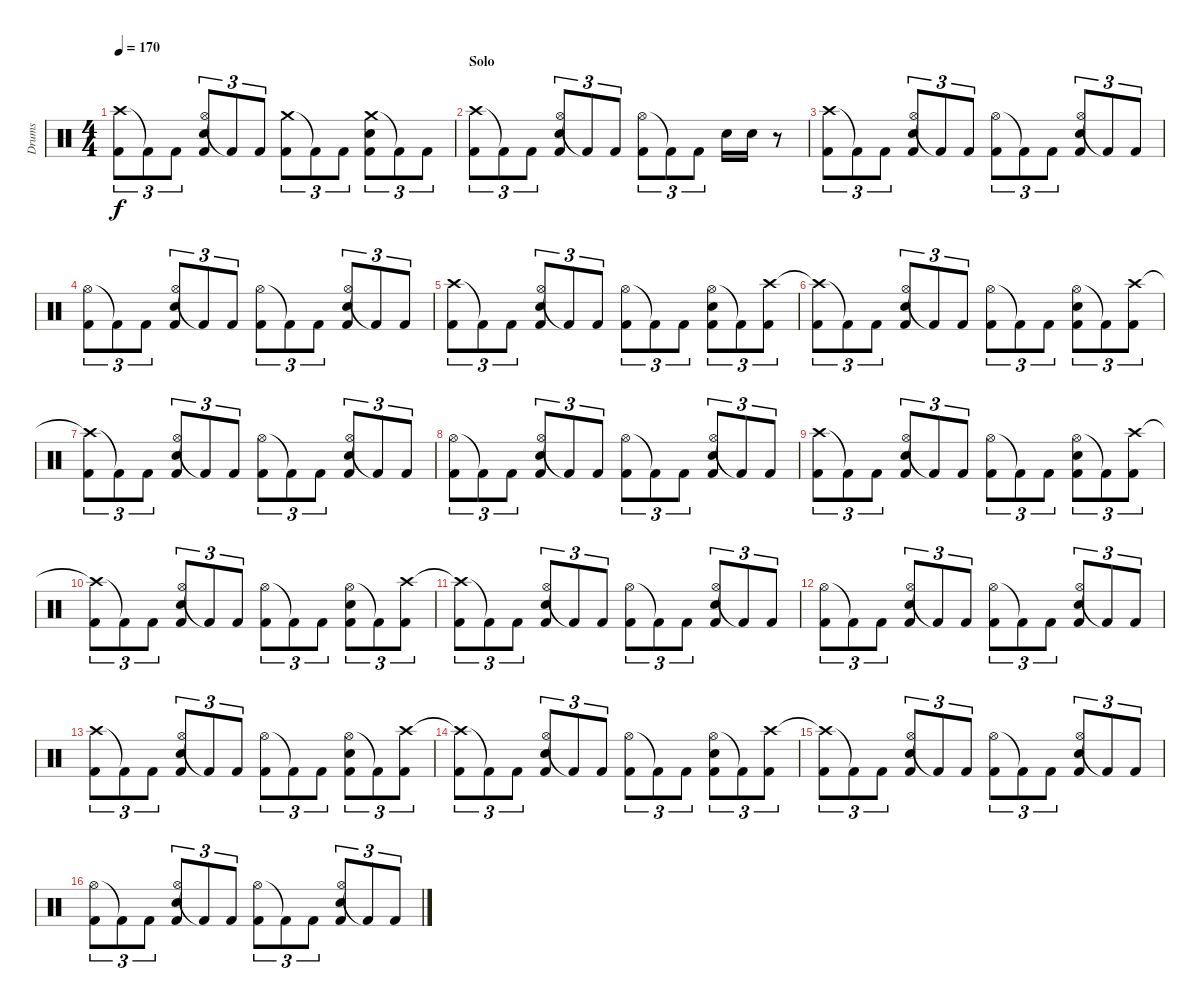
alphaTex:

\track ("Drums" "Drums") {instrument percussion}
\staff {score}
\articulation defaults
\ts (4 4)
\tempo 170
\clef neutral
\ks c
("Crash high (hit)" "Kick (hit) 2").8{tu (3 2) dy f} "Kick (hit) 2"{t}.8{tu (3 2)} "Kick (hit) 2".8{tu (3 2)} ("Hi-Hat (open)" "Snare (hit) 2" "Kick (hit) 2").8{tu (3 2)} "Kick (hit) 2"{t}.8{tu (3 2)} "Kick (hit) 2".8{tu (3 2)} ("Crash medium (hit)" "Kick (hit) 2").8{tu (3 2)} "Kick (hit) 2"{t}.8{tu (3 2)} "Kick (hit) 2".8{tu (3 2)} ("Crash medium (hit)" "Snare (hit) 2" "Kick (hit) 2").8{tu (3 2)} "Kick (hit) 2"{t}.8{tu (3 2)} "Kick (hit) 2".8{tu (3 2)} |
\section ("" "Solo")
("Crash high (hit)" "Kick (hit) 2").8{tu (3 2)} "Kick (hit) 2"{t}.8{tu (3 2)} "Kick (hit) 2".8{tu (3 2)} ("Hi-Hat (open)" "Snare (hit) 2" "Kick (hit) 2").8{tu (3 2)} "Kick (hit) 2"{t}.8{tu (3 2)} "Kick (hit) 2".8{tu (3 2)} ("Hi-Hat (open)" "Kick (hit) 2").8{tu (3 2)} "Kick (hit) 2"{t}.8{tu (3 2)} "Kick (hit) 2".8{tu (3 2)} "Snare (hit) 2".16 "Snare (hit) 2".16 r.8 |
("Crash high (hit)" "Kick (hit) 2").8{tu (3 2)} "Kick (hit) 2"{t}.8{tu (3 2)} "Kick (hit) 2".8{tu (3 2)} ("Hi-Hat (open)" "Snare (hit) 2" "Kick (hit) 2").8{tu (3 2)} "Kick (hit) 2"{t}.8{tu (3 2)} "Kick (hit) 2".8{tu (3 2)} ("Hi-Hat (open)" "Kick (hit) 2").8{tu (3 2)} "Kick (hit) 2"{t}.8{tu (3 2)} "Kick (hit) 2".8{tu (3 2)} ("Hi-Hat (open)" "Snare (hit) 2" "Kick (hit) 2").8{tu (3 2)} "Kick (hit) 2"{t}.8{tu (3 2)} "Kick (hit) 2".8{tu (3 2)} |
("Hi-Hat (open)" "Kick (hit) 2").8{tu (3 2)} "Kick (hit) 2"{t}.8{tu (3 2)} "Kick (hit) 2".8{tu (3 2)} ("Hi-Hat (open)" "Snare (hit) 2" "Kick (hit) 2").8{tu (3 2)} "Kick (hit) 2"{t}.8{tu (3 2)} "Kick (hit) 2".8{tu (3 2)} ("Hi-Hat (open)" "Kick (hit) 2").8{tu (3 2)} "Kick (hit) 2"{t}.8{tu (3 2)} "Kick (hit) 2".8{tu (3 2)} ("Hi-Hat (open)" "Snare (hit) 2" "Kick (hit) 2").8{tu (3 2)} "Kick (hit) 2"{t}.8{tu (3 2)} "Kick (hit) 2".8{tu (3 2)} |
("Crash high (hit)" "Kick (hit) 2").8{tu (3 2)} "Kick (hit) 2"{t}.8{tu (3 2)} "Kick (hit) 2".8{tu (3 2)} ("Hi-Hat (open)" "Snare (hit) 2" "Kick (hit) 2").8{tu (3 2)} "Kick (hit) 2"{t}.8{tu (3 2)} "Kick (hit) 2".8{tu (3 2)} ("Hi-Hat (open)" "Kick (hit) 2").8{tu (3 2)} "Kick (hit) 2"{t}.8{tu (3 2)} "Kick (hit) 2".8{tu (3 2)} ("Hi-Hat (open)" "Snare (hit) 2" "Kick (hit) 2").8{tu (3 2)} "Kick (hit) 2"{t}.8{tu (3 2)} ("Crash high (hit)" "Kick (hit) 2").8{tu (3 2)} |
("Crash high (hit)"{t} "Kick (hit) 2").8{tu (3 2)} "Kick (hit) 2"{t}.8{tu (3 2)} "Kick (hit) 2".8{tu (3 2)} ("Hi-Hat (open)" "Snare (hit) 2" "Kick (hit) 2").8{tu (3 2)} "Kick (hit) 2"{t}.8{tu (3 2)} "Kick (hit) 2".8{tu (3 2)} ("Hi-Hat (open)" "Kick (hit) 2").8{tu (3 2)} "Kick (hit) 2"{t}.8{tu (3 2)} "Kick (hit) 2".8{tu (3 2)} ("Hi-Hat (open)" "Snare (hit) 2" "Kick (hit) 2").8{tu (3 2)} "Kick (hit) 2"{t}.8{tu (3 2)} ("Crash high (hit)" "Kick (hit) 2").8{tu (3 2)} |
("Crash high (hit)"{t} "Kick (hit) 2").8{tu (3 2)} "Kick (hit) 2"{t}.8{tu (3 2)} "Kick (hit) 2".8{tu (3 2)} ("Hi-Hat (open)" "Snare (hit) 2" "Kick (hit) 2").8{tu (3 2)} "Kick (hit) 2"{t}.8{tu (3 2)} "Kick (hit) 2".8{tu (3 2)} ("Hi-Hat (open)" "Kick (hit) 2").8{tu (3 2)} "Kick (hit) 2"{t}.8{tu (3 2)} "Kick (hit) 2".8{tu (3 2)} ("Hi-Hat (open)" "Snare (hit) 2" "Kick (hit) 2").8{tu (3 2)} "Kick (hit) 2"{t}.8{tu (3 2)} "Kick (hit) 2".8{tu (3 2)} |
("Hi-Hat (open)" "Kick (hit) 2").8{tu (3 2)} "Kick (hit) 2"{t}.8{tu (3 2)} "Kick (hit) 2".8{tu (3 2)} ("Hi-Hat (open)" "Snare (hit) 2" "Kick (hit) 2").8{tu (3 2)} "Kick (hit) 2"{t}.8{tu (3 2)} "Kick (hit) 2".8{tu (3 2)} ("Hi-Hat (open)" "Kick (hit) 2").8{tu (3 2)} "Kick (hit) 2"{t}.8{tu (3 2)} "Kick (hit) 2".8{tu (3 2)} ("Hi-Hat (open)" "Snare (hit) 2" "Kick (hit) 2").8{tu (3 2)} "Kick (hit) 2"{t}.8{tu (3 2)} "Kick (hit) 2".8{tu (3 2)} |
("Crash high (hit)" "Kick (hit) 2").8{tu (3 2)} "Kick (hit) 2"{t}.8{tu (3 2)} "Kick (hit) 2".8{tu (3 2)} ("Hi-Hat (open)" "Snare (hit) 2" "Kick (hit) 2").8{tu (3 2)} "Kick (hit) 2"{t}.8{tu (3 2)} "Kick (hit) 2".8{tu (3 2)} ("Hi-Hat (open)" "Kick (hit) 2").8{tu (3 2)} "Kick (hit) 2"{t}.8{tu (3 2)} "Kick (hit) 2".8{tu (3 2)} ("Hi-Hat (open)" "Snare (hit) 2" "Kick (hit) 2").8{tu (3 2)} "Kick (hit) 2"{t}.8{tu (3 2)} ("Crash high (hit)" "Kick (hit) 2").8{tu (3 2)} |
("Crash high (hit)"{t} "Kick (hit) 2").8{tu (3 2)} "Kick (hit) 2"{t}.8{tu (3 2)} "Kick (hit) 2".8{tu (3 2)} ("Hi-Hat (open)" "Snare (hit) 2" "Kick (hit) 2").8{tu (3 2)} "Kick (hit) 2"{t}.8{tu (3 2)} "Kick (hit) 2".8{tu (3 2)} ("Hi-Hat (open)" "Kick (hit) 2").8{tu (3 2)} "Kick (hit) 2"{t}.8{tu (3 2)} "Kick (hit) 2".8{tu (3 2)} ("Hi-Hat (open)" "Snare (hit) 2" "Kick (hit) 2").8{tu (3 2)} "Kick (hit) 2"{t}.8{tu (3 2)} ("Crash high (hit)" "Kick (hit) 2").8{tu (3 2)} |
("Crash high (hit)"{t} "Kick (hit) 2").8{tu (3 2)} "Kick (hit) 2"{t}.8{tu (3 2)} "Kick (hit) 2".8{tu (3 2)} ("Hi-Hat (open)" "Snare (hit) 2" "Kick (hit) 2").8{tu (3 2)} "Kick (hit) 2"{t}.8{tu (3 2)} "Kick (hit) 2".8{tu (3 2)} ("Hi-Hat (open)" "Kick (hit) 2").8{tu (3 2)} "Kick (hit) 2"{t}.8{tu (3 2)} "Kick (hit) 2".8{tu (3 2)} ("Hi-Hat (open)" "Snare (hit) 2" "Kick (hit) 2").8{tu (3 2)} "Kick (hit) 2"{t}.8{tu (3 2)} "Kick (hit) 2".8{tu (3 2)} |
("Hi-Hat (open)" "Kick (hit) 2").8{tu (3 2)} "Kick (hit) 2"{t}.8{tu (3 2)} "Kick (hit) 2".8{tu (3 2)} ("Hi-Hat (open)" "Snare (hit) 2" "Kick (hit) 2").8{tu (3 2)} "Kick (hit) 2"{t}.8{tu (3 2)} "Kick (hit) 2".8{tu (3 2)} ("Hi-Hat (open)" "Kick (hit) 2").8{tu (3 2)} "Kick (hit) 2"{t}.8{tu (3 2)} "Kick (hit) 2".8{tu (3 2)} ("Hi-Hat (open)" "Snare (hit) 2" "Kick (hit) 2").8{tu (3 2)} "Kick (hit) 2"{t}.8{tu (3 2)} "Kick (hit) 2".8{tu (3 2)} |
("Crash high (hit)" "Kick (hit) 2").8{tu (3 2)} "Kick (hit) 2"{t}.8{tu (3 2)} "Kick (hit) 2".8{tu (3 2)} ("Hi-Hat (open)" "Snare (hit) 2" "Kick (hit) 2").8{tu (3 2)} "Kick (hit) 2"{t}.8{tu (3 2)} "Kick (hit) 2".8{tu (3 2)} ("Hi-Hat (open)" "Kick (hit) 2").8{tu (3 2)} "Kick (hit) 2"{t}.8{tu (3 2)} "Kick (hit) 2".8{tu (3 2)} ("Hi-Hat (open)" "Snare (hit) 2" "Kick (hit) 2").8{tu (3 2)} "Kick (hit) 2"{t}.8{tu (3 2)} ("Crash high (hit)" "Kick (hit) 2").8{tu (3 2)} |
("Crash high (hit)"{t} "Kick (hit) 2").8{tu (3 2)} "Kick (hit) 2"{t}.8{tu (3 2)} "Kick (hit) 2".8{tu (3 2)} ("Hi-Hat (open)" "Snare (hit) 2" "Kick (hit) 2").8{tu (3 2)} "Kick (hit) 2"{t}.8{tu (3 2)} "Kick (hit) 2".8{tu (3 2)} ("Hi-Hat (open)" "Kick (hit) 2").8{tu (3 2)} "Kick (hit) 2"{t}.8{tu (3 2)} "Kick (hit) 2".8{tu (3 2)} ("Hi-Hat (open)" "Snare (hit) 2" "Kick (hit) 2").8{tu (3 2)} "Kick (hit) 2"{t}.8{tu (3 2)} ("Crash high (hit)" "Kick (hit) 2").8{tu (3 2)} |
("Crash high (hit)"{t} "Kick (hit) 2").8{tu (3 2)} "Kick (hit) 2"{t}.8{tu (3 2)} "Kick (hit) 2".8{tu (3 2)} ("Hi-Hat (open)" "Snare (hit) 2" "Kick (hit) 2").8{tu (3 2)} "Kick (hit) 2"{t}.8{tu (3 2)} "Kick (hit) 2".8{tu (3 2)} ("Hi-Hat (open)" "Kick (hit) 2").8{tu (3 2)} "Kick (hit) 2"{t}.8{tu (3 2)} "Kick (hit) 2".8{tu (3 2)} ("Hi-Hat (open)" "Snare (hit) 2" "Kick (hit) 2").8{tu (3 2)} "Kick (hit) 2"{t}.8{tu (3 2)} "Kick (hit) 2".8{tu (3 2)} |
("Hi-Hat (open)" "Kick (hit) 2").8{tu (3 2)} "Kick (hit) 2"{t}.8{tu (3 2)} "Kick (hit) 2".8{tu (3 2)} ("Hi-Hat (open)" "Snare (hit) 2" "Kick (hit) 2").8{tu (3 2)} "Kick (hit) 2"{t}.8{tu (3 2)} "Kick (hit) 2".8{tu (3 2)} ("Hi-Hat (open)" "Kick (hit) 2").8{tu (3 2)} "Kick (hit) 2"{t}.8{tu (3 2)} "Kick (hit) 2".8{tu (3 2)} ("Hi-Hat (open)" "Snare (hit) 2" "Kick (hit) 2").8{tu (3 2)} "Kick (hit) 2"{t}.8{tu (3 2)} "Kick (hit) 2".8{tu (3 2)}
